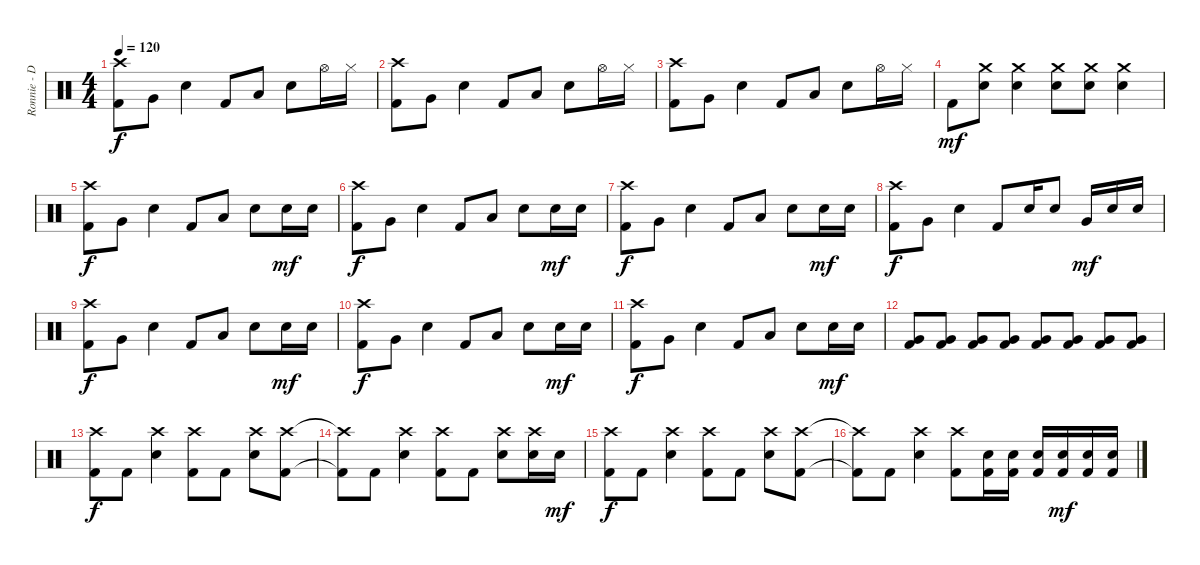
\track ("Ronnie - Drums" "Ronnie - D") {instrument percussion}
\staff {score}
\articulation defaults
\ts (4 4)
\tempo 120
\clef neutral
\ks c
("Crash high (hit)" "Kick (hit) 2").8{dy f} "Very Low Tom (hit)".8 "Snare (hit) 2".4 "Kick (hit) 2".8 "Low Floor Tom (hit)".8 "Snare (hit) 2".8 "Hi-Hat (open)".16 "Hi-Hat (closed)".16 |
("Crash high (hit)" "Kick (hit) 2").8 "Very Low Tom (hit)".8 "Snare (hit) 2".4 "Kick (hit) 2".8 "Low Floor Tom (hit)".8 "Snare (hit) 2".8 "Hi-Hat (open)".16 "Hi-Hat (closed)".16 |
("Crash high (hit)" "Kick (hit) 2").8 "Very Low Tom (hit)".8 "Snare (hit) 2".4 "Kick (hit) 2".8 "Low Floor Tom (hit)".8 "Snare (hit) 2".8 "Hi-Hat (open)".16 "Hi-Hat (closed)".16 |
"Kick (hit) 2".8{dy mf} ("Crash medium (hit)" "Snare (hit) 2").8 ("Crash medium (hit)" "Snare (hit) 2").4 ("Crash medium (hit)" "Snare (hit) 2").8 ("Crash medium (hit)" "Snare (hit) 2").8 ("Crash medium (hit)" "Snare (hit) 2").4 |
("Crash high (hit)" "Kick (hit) 2").8{dy f} "Very Low Tom (hit)".8 "Snare (hit) 2".4 "Kick (hit) 2".8 "Low Floor Tom (hit)".8 "Snare (hit) 2".8 "Snare (hit) 2".16{dy mf} "Snare (hit) 2".16 |
("Crash high (hit)" "Kick (hit) 2").8{dy f} "Very Low Tom (hit)".8 "Snare (hit) 2".4 "Kick (hit) 2".8 "Low Floor Tom (hit)".8 "Snare (hit) 2".8 "Snare (hit) 2".16{dy mf} "Snare (hit) 2".16 |
("Crash high (hit)" "Kick (hit) 2").8{dy f} "Very Low Tom (hit)".8 "Snare (hit) 2".4 "Kick (hit) 2".8 "Low Floor Tom (hit)".8 "Snare (hit) 2".8 "Snare (hit) 2".16{dy mf} "Snare (hit) 2".16 |
("Crash high (hit)" "Kick (hit) 2").8{dy f} "Very Low Tom (hit)".8 "Snare (hit) 2".4 "Kick (hit) 2".8 "Snare (hit) 2".16 "Snare (hit) 2".8 "Very Low Tom (hit)".16{dy mf} "Snare (hit) 2".16 "Snare (hit) 2".16 |
("Crash high (hit)" "Kick (hit) 2").8{dy f} "Very Low Tom (hit)".8 "Snare (hit) 2".4 "Kick (hit) 2".8 "Low Floor Tom (hit)".8 "Snare (hit) 2".8 "Snare (hit) 2".16{dy mf} "Snare (hit) 2".16 |
("Crash high (hit)" "Kick (hit) 2").8{dy f} "Very Low Tom (hit)".8 "Snare (hit) 2".4 "Kick (hit) 2".8 "Low Floor Tom (hit)".8 "Snare (hit) 2".8 "Snare (hit) 2".16{dy mf} "Snare (hit) 2".16 |
("Crash high (hit)" "Kick (hit) 2").8{dy f} "Very Low Tom (hit)".8 "Snare (hit) 2".4 "Kick (hit) 2".8 "Low Floor Tom (hit)".8 "Snare (hit) 2".8 "Snare (hit) 2".16{dy mf} "Snare (hit) 2".16 |
("Very Low Tom (hit)" "Kick (hit) 2").8 ("Very Low Tom (hit)" "Kick (hit) 2").8 ("Very Low Tom (hit)" "Kick (hit) 2").8 ("Very Low Tom (hit)" "Kick (hit) 2").8 ("Very Low Tom (hit)" "Kick (hit) 2").8 ("Very Low Tom (hit)" "Kick (hit) 2").8 ("Very Low Tom (hit)" "Kick (hit) 2").8 ("Very Low Tom (hit)" "Kick (hit) 2").8 |
("Crash high (hit)" "Kick (hit) 2").8{dy f} "Kick (hit) 2".8 ("Crash high (hit)" "Snare (hit) 2").4 ("Crash high (hit)" "Kick (hit) 2").8 "Kick (hit) 2".8 ("Crash high (hit)" "Snare (hit) 2").8 ("Crash high (hit)" "Kick (hit) 2").8 |
("Crash high (hit)"{t} "Kick (hit) 2"{t}).8 "Kick (hit) 2".8 ("Crash high (hit)" "Snare (hit) 2").4 ("Crash high (hit)" "Kick (hit) 2").8 "Kick (hit) 2".8 ("Crash high (hit)" "Snare (hit) 2").8 ("Crash high (hit)" "Snare (hit) 2").16 "Snare (hit) 2".16{dy mf} |
("Crash high (hit)" "Kick (hit) 2").8{dy f} "Kick (hit) 2".8 ("Crash high (hit)" "Snare (hit) 2").4 ("Crash high (hit)" "Kick (hit) 2").8 "Kick (hit) 2".8 ("Crash high (hit)" "Snare (hit) 2").8 ("Crash high (hit)" "Kick (hit) 2").8 |
("Crash high (hit)"{t} "Kick (hit) 2"{t}).8 "Kick (hit) 2".8 ("Crash high (hit)" "Snare (hit) 2").4 ("Crash high (hit)" "Kick (hit) 2").8 ("Kick (hit) 2" "Snare (hit) 2").16 ("Kick (hit) 2" "Snare (hit) 2").16 ("Kick (hit) 2" "Snare (hit) 2").16 ("Kick (hit) 2" "Snare (hit) 2").16{dy mf} ("Kick (hit) 2" "Snare (hit) 2").16 ("Kick (hit) 2" "Snare (hit) 2").16
